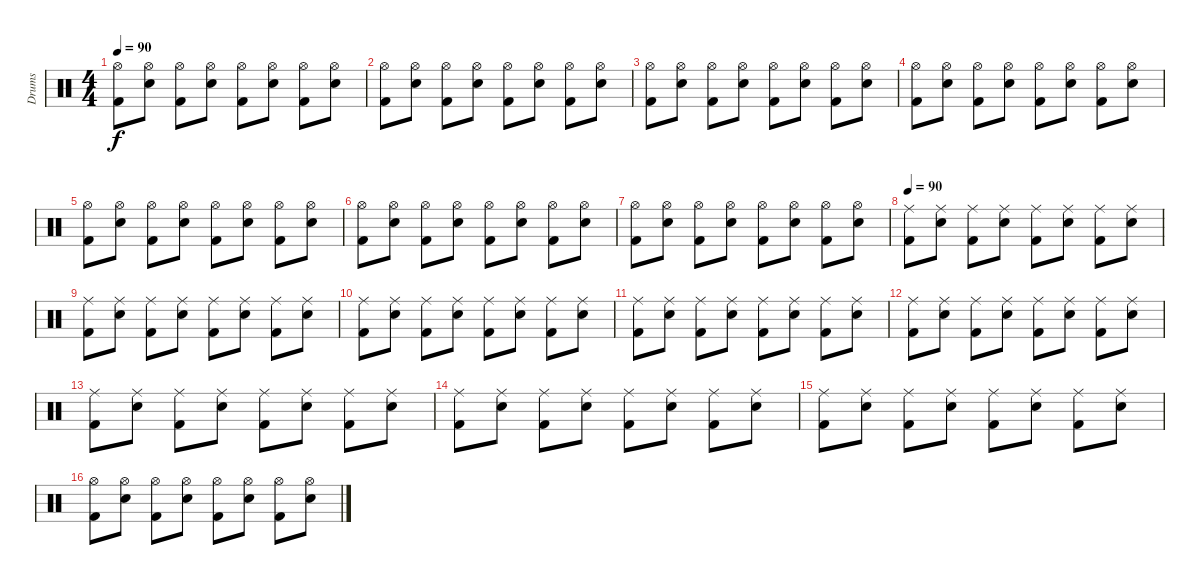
\track ("Drums" "Drums") {instrument percussion}
\staff {score}
\articulation defaults
\ts (4 4)
\tempo 90
\clef neutral
\ks c
("Hi-Hat (open)" "Kick (hit) 2").8{dy f} ("Hi-Hat (open)" "Electric Snare (hit)").8 ("Hi-Hat (open)" "Kick (hit) 2").8 ("Hi-Hat (open)" "Electric Snare (hit)").8 ("Hi-Hat (open)" "Kick (hit) 2").8 ("Hi-Hat (open)" "Electric Snare (hit)").8 ("Hi-Hat (open)" "Kick (hit) 2").8 ("Hi-Hat (open)" "Electric Snare (hit)").8 |
("Hi-Hat (open)" "Kick (hit) 2").8 ("Hi-Hat (open)" "Electric Snare (hit)").8 ("Hi-Hat (open)" "Kick (hit) 2").8 ("Hi-Hat (open)" "Electric Snare (hit)").8 ("Hi-Hat (open)" "Kick (hit) 2").8 ("Hi-Hat (open)" "Electric Snare (hit)").8 ("Hi-Hat (open)" "Kick (hit) 2").8 ("Hi-Hat (open)" "Electric Snare (hit)").8 |
("Hi-Hat (open)" "Kick (hit) 2").8 ("Hi-Hat (open)" "Electric Snare (hit)").8 ("Hi-Hat (open)" "Kick (hit) 2").8 ("Hi-Hat (open)" "Electric Snare (hit)").8 ("Hi-Hat (open)" "Kick (hit) 2").8 ("Hi-Hat (open)" "Electric Snare (hit)").8 ("Hi-Hat (open)" "Kick (hit) 2").8 ("Hi-Hat (open)" "Electric Snare (hit)").8 |
("Hi-Hat (open)" "Kick (hit) 2").8 ("Hi-Hat (open)" "Electric Snare (hit)").8 ("Hi-Hat (open)" "Kick (hit) 2").8 ("Hi-Hat (open)" "Electric Snare (hit)").8 ("Hi-Hat (open)" "Kick (hit) 2").8 ("Hi-Hat (open)" "Electric Snare (hit)").8 ("Hi-Hat (open)" "Kick (hit) 2").8 ("Hi-Hat (open)" "Electric Snare (hit)").8 |
("Hi-Hat (open)" "Kick (hit) 2").8 ("Hi-Hat (open)" "Electric Snare (hit)").8 ("Hi-Hat (open)" "Kick (hit) 2").8 ("Hi-Hat (open)" "Electric Snare (hit)").8 ("Hi-Hat (open)" "Kick (hit) 2").8 ("Hi-Hat (open)" "Electric Snare (hit)").8 ("Hi-Hat (open)" "Kick (hit) 2").8 ("Hi-Hat (open)" "Electric Snare (hit)").8 |
("Hi-Hat (open)" "Kick (hit) 2").8 ("Hi-Hat (open)" "Electric Snare (hit)").8 ("Hi-Hat (open)" "Kick (hit) 2").8 ("Hi-Hat (open)" "Electric Snare (hit)").8 ("Hi-Hat (open)" "Kick (hit) 2").8 ("Hi-Hat (open)" "Electric Snare (hit)").8 ("Hi-Hat (open)" "Kick (hit) 2").8 ("Hi-Hat (open)" "Electric Snare (hit)").8 |
("Hi-Hat (open)" "Kick (hit) 2").8 ("Hi-Hat (open)" "Electric Snare (hit)").8 ("Hi-Hat (open)" "Kick (hit) 2").8 ("Hi-Hat (open)" "Electric Snare (hit)").8 ("Hi-Hat (open)" "Kick (hit) 2").8 ("Hi-Hat (open)" "Electric Snare (hit)").8 ("Hi-Hat (open)" "Kick (hit) 2").8 ("Hi-Hat (open)" "Electric Snare (hit)").8 |
\tempo 90
("Ride (middle)" "Kick (hit) 2").8 ("Ride (middle)" "Electric Snare (hit)").8 ("Ride (middle)" "Kick (hit) 2").8 ("Ride (middle)" "Electric Snare (hit)").8 ("Ride (middle)" "Kick (hit) 2").8 ("Ride (middle)" "Electric Snare (hit)").8 ("Ride (middle)" "Kick (hit) 2").8 ("Ride (middle)" "Electric Snare (hit)").8 |
("Ride (middle)" "Kick (hit) 2").8 ("Ride (middle)" "Electric Snare (hit)").8 ("Ride (middle)" "Kick (hit) 2").8 ("Ride (middle)" "Electric Snare (hit)").8 ("Ride (middle)" "Kick (hit) 2").8 ("Ride (middle)" "Electric Snare (hit)").8 ("Ride (middle)" "Kick (hit) 2").8 ("Ride (middle)" "Electric Snare (hit)").8 |
("Ride (middle)" "Kick (hit) 2").8 ("Ride (middle)" "Electric Snare (hit)").8 ("Ride (middle)" "Kick (hit) 2").8 ("Ride (middle)" "Electric Snare (hit)").8 ("Ride (middle)" "Kick (hit) 2").8 ("Ride (middle)" "Electric Snare (hit)").8 ("Ride (middle)" "Kick (hit) 2").8 ("Ride (middle)" "Electric Snare (hit)").8 |
("Ride (middle)" "Kick (hit) 2").8 ("Ride (middle)" "Electric Snare (hit)").8 ("Ride (middle)" "Kick (hit) 2").8 ("Ride (middle)" "Electric Snare (hit)").8 ("Ride (middle)" "Kick (hit) 2").8 ("Ride (middle)" "Electric Snare (hit)").8 ("Ride (middle)" "Kick (hit) 2").8 ("Ride (middle)" "Electric Snare (hit)").8 |
("Ride (middle)" "Kick (hit) 2").8 ("Ride (middle)" "Electric Snare (hit)").8 ("Ride (middle)" "Kick (hit) 2").8 ("Ride (middle)" "Electric Snare (hit)").8 ("Ride (middle)" "Kick (hit) 2").8 ("Ride (middle)" "Electric Snare (hit)").8 ("Ride (middle)" "Kick (hit) 2").8 ("Ride (middle)" "Electric Snare (hit)").8 |
("Ride (middle)" "Kick (hit) 2").8 ("Ride (middle)" "Electric Snare (hit)").8 ("Ride (middle)" "Kick (hit) 2").8 ("Ride (middle)" "Electric Snare (hit)").8 ("Ride (middle)" "Kick (hit) 2").8 ("Ride (middle)" "Electric Snare (hit)").8 ("Ride (middle)" "Kick (hit) 2").8 ("Ride (middle)" "Electric Snare (hit)").8 |
("Ride (middle)" "Kick (hit) 2").8 ("Ride (middle)" "Electric Snare (hit)").8 ("Ride (middle)" "Kick (hit) 2").8 ("Ride (middle)" "Electric Snare (hit)").8 ("Ride (middle)" "Kick (hit) 2").8 ("Ride (middle)" "Electric Snare (hit)").8 ("Ride (middle)" "Kick (hit) 2").8 ("Ride (middle)" "Electric Snare (hit)").8 |
("Ride (middle)" "Kick (hit) 2").8 ("Ride (middle)" "Electric Snare (hit)").8 ("Ride (middle)" "Kick (hit) 2").8 ("Ride (middle)" "Electric Snare (hit)").8 ("Ride (middle)" "Kick (hit) 2").8 ("Ride (middle)" "Electric Snare (hit)").8 ("Ride (middle)" "Kick (hit) 2").8 ("Ride (middle)" "Electric Snare (hit)").8 |
("Hi-Hat (open)" "Kick (hit) 2").8 ("Hi-Hat (open)" "Electric Snare (hit)").8 ("Hi-Hat (open)" "Kick (hit) 2").8 ("Hi-Hat (open)" "Electric Snare (hit)").8 ("Hi-Hat (open)" "Kick (hit) 2").8 ("Hi-Hat (open)" "Electric Snare (hit)").8 ("Hi-Hat (open)" "Kick (hit) 2").8 ("Hi-Hat (open)" "Electric Snare (hit)").8
